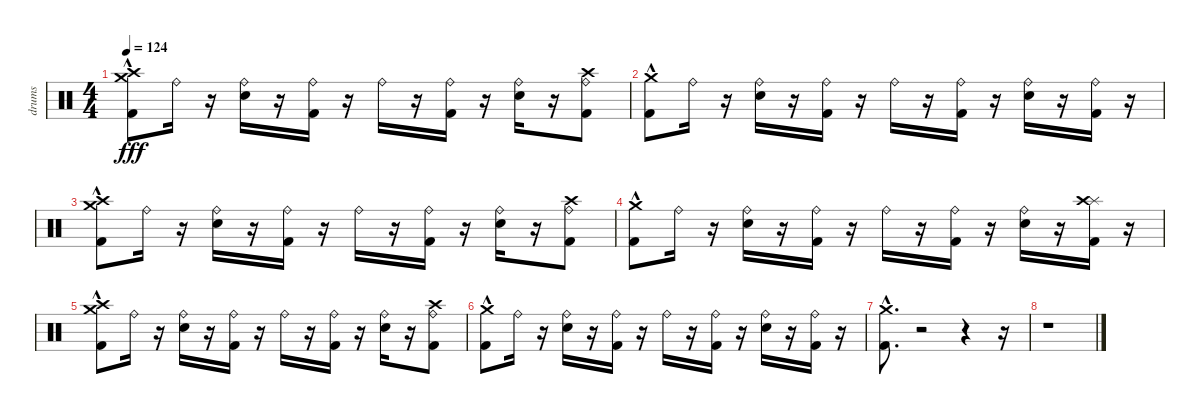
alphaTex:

\track ("drums" "drums") {instrument percussion}
\staff {score}
\articulation defaults
\ts (4 4)
\tempo 124
\clef neutral
\ks c
("Crash medium (hit)"{hac} "Crash high (hit)"{hac} "Kick (hit) 2").8{dy fff} "Ride (bell)".16 r.16 ("Snare (hit) 2" "Ride (bell)").16 r.16 ("Kick (hit) 2" "Ride (bell)").16 r.16 "Ride (bell)".16 r.16 ("Kick (hit) 2" "Ride (bell)").16 r.16 ("Snare (hit) 2" "Ride (bell)").16 r.16 ("Crash high (hit)" "Kick (hit) 2" "Ride (bell)").8 |
("Crash medium (hit)"{hac} "Kick (hit) 2").8 "Ride (bell)".16 r.16 ("Snare (hit) 2" "Ride (bell)").16 r.16 ("Kick (hit) 2" "Ride (bell)").16 r.16 "Ride (bell)".16 r.16 ("Kick (hit) 2" "Ride (bell)").16 r.16 ("Snare (hit) 2" "Ride (bell)").16 r.16 ("Kick (hit) 2" "Ride (bell)").16 r.16 |
("Crash medium (hit)"{hac} "Crash high (hit)"{hac} "Kick (hit) 2").8 "Ride (bell)".16 r.16 ("Snare (hit) 2" "Ride (bell)").16 r.16 ("Kick (hit) 2" "Ride (bell)").16 r.16 "Ride (bell)".16 r.16 ("Kick (hit) 2" "Ride (bell)").16 r.16 ("Snare (hit) 2" "Ride (bell)").16 r.16 ("Crash high (hit)" "Kick (hit) 2" "Ride (bell)").8 |
("Crash medium (hit)"{hac} "Kick (hit) 2").8 "Ride (bell)".16 r.16 ("Snare (hit) 2" "Ride (bell)").16 r.16 ("Kick (hit) 2" "Ride (bell)").16 r.16 "Ride (bell)".16 r.16 ("Kick (hit) 2" "Ride (bell)").16 r.16 ("Snare (hit) 2" "Ride (bell)").16 r.16 ("Kick (hit) 2" "Splash (hit)" "Crash high (hit)").16 r.16 |
("Crash medium (hit)"{hac} "Crash high (hit)"{hac} "Kick (hit) 2").8 "Ride (bell)".16 r.16 ("Snare (hit) 2" "Ride (bell)").16 r.16 ("Kick (hit) 2" "Ride (bell)").16 r.16 "Ride (bell)".16 r.16 ("Kick (hit) 2" "Ride (bell)").16 r.16 ("Snare (hit) 2" "Ride (bell)").16 r.16 ("Crash high (hit)" "Kick (hit) 2" "Ride (bell)").8 |
("Kick (hit) 2" "Crash medium (hit)"{hac}).8 "Ride (bell)".16 r.16 ("Snare (hit) 2" "Ride (bell)").16 r.16 ("Kick (hit) 2" "Ride (bell)").16 r.16 "Ride (bell)".16 r.16 ("Kick (hit) 2" "Ride (bell)").16 r.16 ("Snare (hit) 2" "Ride (bell)").16 r.16 ("Ride (bell)" "Kick (hit) 2").16 r.16 |
("Kick (hit) 2" "Crash medium (hit)"{hac}).8{d} r.2 r.4 r.16 |
r.1
